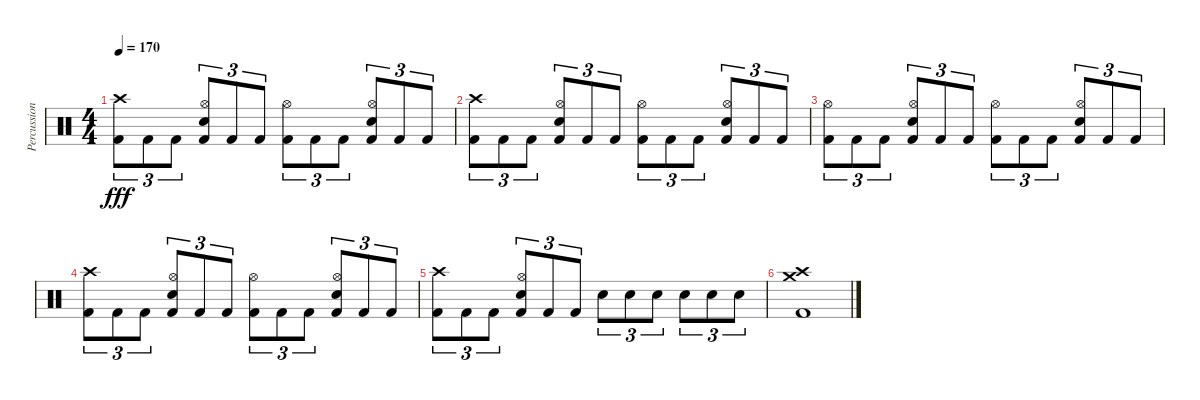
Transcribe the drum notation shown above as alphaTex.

\track ("Percussion" "Percussion") {instrument percussion}
\staff {score}
\articulation defaults
\ts (4 4)
\tempo 170
\clef neutral
\ks c
("Crash high (hit)" "Kick (hit) 2").8{tu (3 2) dy fff} "Kick (hit) 2".8{tu (3 2)} "Kick (hit) 2".8{tu (3 2)} ("Hi-Hat (open)" "Snare (hit) 2" "Kick (hit) 2").8{tu (3 2)} "Kick (hit) 2".8{tu (3 2)} "Kick (hit) 2".8{tu (3 2)} ("Hi-Hat (open)" "Kick (hit) 2").8{tu (3 2)} "Kick (hit) 2".8{tu (3 2)} "Kick (hit) 2".8{tu (3 2)} ("Hi-Hat (open)" "Snare (hit) 2" "Kick (hit) 2").8{tu (3 2)} "Kick (hit) 2".8{tu (3 2)} "Kick (hit) 2".8{tu (3 2)} |
("Crash high (hit)" "Kick (hit) 2").8{tu (3 2)} "Kick (hit) 2".8{tu (3 2)} "Kick (hit) 2".8{tu (3 2)} ("Hi-Hat (open)" "Snare (hit) 2" "Kick (hit) 2").8{tu (3 2)} "Kick (hit) 2".8{tu (3 2)} "Kick (hit) 2".8{tu (3 2)} ("Hi-Hat (open)" "Kick (hit) 2").8{tu (3 2)} "Kick (hit) 2".8{tu (3 2)} "Kick (hit) 2".8{tu (3 2)} ("Hi-Hat (open)" "Snare (hit) 2" "Kick (hit) 2").8{tu (3 2)} "Kick (hit) 2".8{tu (3 2)} "Kick (hit) 2".8{tu (3 2)} |
("Hi-Hat (open)" "Kick (hit) 2").8{tu (3 2)} "Kick (hit) 2".8{tu (3 2)} "Kick (hit) 2".8{tu (3 2)} ("Hi-Hat (open)" "Snare (hit) 2" "Kick (hit) 2").8{tu (3 2)} "Kick (hit) 2".8{tu (3 2)} "Kick (hit) 2".8{tu (3 2)} ("Hi-Hat (open)" "Kick (hit) 2").8{tu (3 2)} "Kick (hit) 2".8{tu (3 2)} "Kick (hit) 2".8{tu (3 2)} ("Hi-Hat (open)" "Snare (hit) 2" "Kick (hit) 2").8{tu (3 2)} "Kick (hit) 2".8{tu (3 2)} "Kick (hit) 2".8{tu (3 2)} |
("Crash high (hit)" "Kick (hit) 2").8{tu (3 2)} "Kick (hit) 2".8{tu (3 2)} "Kick (hit) 2".8{tu (3 2)} ("Hi-Hat (open)" "Snare (hit) 2" "Kick (hit) 2").8{tu (3 2)} "Kick (hit) 2".8{tu (3 2)} "Kick (hit) 2".8{tu (3 2)} ("Hi-Hat (open)" "Kick (hit) 2").8{tu (3 2)} "Kick (hit) 2".8{tu (3 2)} "Kick (hit) 2".8{tu (3 2)} ("Hi-Hat (open)" "Snare (hit) 2" "Kick (hit) 2").8{tu (3 2)} "Kick (hit) 2".8{tu (3 2)} "Kick (hit) 2".8{tu (3 2)} |
("Crash high (hit)" "Kick (hit) 2").8{tu (3 2)} "Kick (hit) 2".8{tu (3 2)} "Kick (hit) 2".8{tu (3 2)} ("Hi-Hat (open)" "Snare (hit) 2" "Kick (hit) 2").8{tu (3 2)} "Kick (hit) 2".8{tu (3 2)} "Kick (hit) 2".8{tu (3 2)} "Electric Snare (hit)".8{tu (3 2)} "Electric Snare (hit)".8{tu (3 2)} "Electric Snare (hit)".8{tu (3 2)} "Electric Snare (hit)".8{tu (3 2)} "Electric Snare (hit)".8{tu (3 2)} "Electric Snare (hit)".8{tu (3 2)} |
("Crash high (hit)" "Crash medium (hit)" "Kick (hit) 2").1
